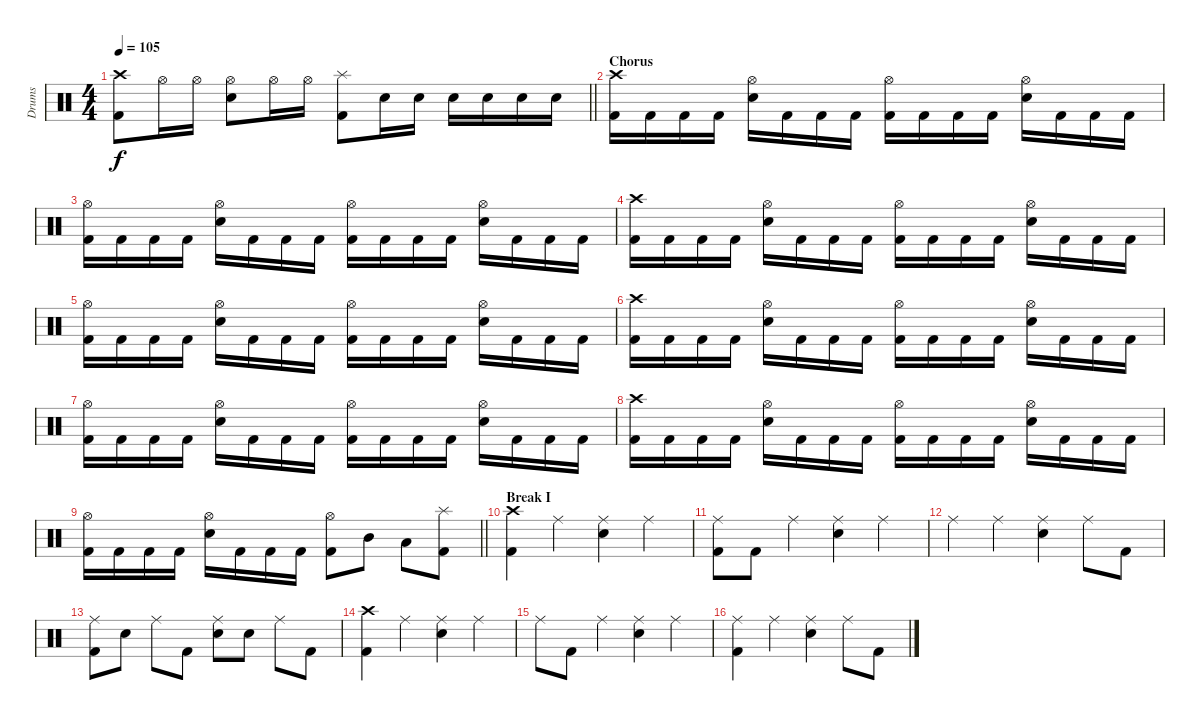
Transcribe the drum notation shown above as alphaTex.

\track ("Drums" "Drums") {instrument percussion}
\staff {score}
\articulation defaults
\ts (4 4)
\tempo 105
\clef neutral
\barLineRight lightlight
\ks c
("Crash high (hit)" "Kick (hit) 2").8{dy f} "Hi-Hat (open)".16 "Hi-Hat (open)".16 ("Hi-Hat (open)" "Electric Snare (hit)").8 "Hi-Hat (open)".16 "Hi-Hat (open)".16 ("Splash (hit)" "Kick (hit) 2").8 "Electric Snare (hit)".16 "Electric Snare (hit)".16 "Electric Snare (hit)".16 "Electric Snare (hit)".16 "Electric Snare (hit)".16 "Electric Snare (hit)".16 |
\section ("" "Chorus")
("Crash high (hit)" "Kick (hit) 2").16 "Kick (hit) 2".16 "Kick (hit) 2".16 "Kick (hit) 2".16 ("Hi-Hat (open)" "Electric Snare (hit)").16 "Kick (hit) 2".16 "Kick (hit) 2".16 "Kick (hit) 2".16 ("Hi-Hat (open)" "Kick (hit) 2").16 "Kick (hit) 2".16 "Kick (hit) 2".16 "Kick (hit) 2".16 ("Hi-Hat (open)" "Electric Snare (hit)").16 "Kick (hit) 2".16 "Kick (hit) 2".16 "Kick (hit) 2".16 |
("Hi-Hat (open)" "Kick (hit) 2").16 "Kick (hit) 2".16 "Kick (hit) 2".16 "Kick (hit) 2".16 ("Hi-Hat (open)" "Electric Snare (hit)").16 "Kick (hit) 2".16 "Kick (hit) 2".16 "Kick (hit) 2".16 ("Hi-Hat (open)" "Kick (hit) 2").16 "Kick (hit) 2".16 "Kick (hit) 2".16 "Kick (hit) 2".16 ("Hi-Hat (open)" "Electric Snare (hit)").16 "Kick (hit) 2".16 "Kick (hit) 2".16 "Kick (hit) 2".16 |
("Crash high (hit)" "Kick (hit) 2").16 "Kick (hit) 2".16 "Kick (hit) 2".16 "Kick (hit) 2".16 ("Hi-Hat (open)" "Electric Snare (hit)").16 "Kick (hit) 2".16 "Kick (hit) 2".16 "Kick (hit) 2".16 ("Hi-Hat (open)" "Kick (hit) 2").16 "Kick (hit) 2".16 "Kick (hit) 2".16 "Kick (hit) 2".16 ("Hi-Hat (open)" "Electric Snare (hit)").16 "Kick (hit) 2".16 "Kick (hit) 2".16 "Kick (hit) 2".16 |
("Hi-Hat (open)" "Kick (hit) 2").16 "Kick (hit) 2".16 "Kick (hit) 2".16 "Kick (hit) 2".16 ("Hi-Hat (open)" "Electric Snare (hit)").16 "Kick (hit) 2".16 "Kick (hit) 2".16 "Kick (hit) 2".16 ("Hi-Hat (open)" "Kick (hit) 2").16 "Kick (hit) 2".16 "Kick (hit) 2".16 "Kick (hit) 2".16 ("Hi-Hat (open)" "Electric Snare (hit)").16 "Kick (hit) 2".16 "Kick (hit) 2".16 "Kick (hit) 2".16 |
("Crash high (hit)" "Kick (hit) 2").16 "Kick (hit) 2".16 "Kick (hit) 2".16 "Kick (hit) 2".16 ("Hi-Hat (open)" "Electric Snare (hit)").16 "Kick (hit) 2".16 "Kick (hit) 2".16 "Kick (hit) 2".16 ("Hi-Hat (open)" "Kick (hit) 2").16 "Kick (hit) 2".16 "Kick (hit) 2".16 "Kick (hit) 2".16 ("Hi-Hat (open)" "Electric Snare (hit)").16 "Kick (hit) 2".16 "Kick (hit) 2".16 "Kick (hit) 2".16 |
("Hi-Hat (open)" "Kick (hit) 2").16 "Kick (hit) 2".16 "Kick (hit) 2".16 "Kick (hit) 2".16 ("Hi-Hat (open)" "Electric Snare (hit)").16 "Kick (hit) 2".16 "Kick (hit) 2".16 "Kick (hit) 2".16 ("Hi-Hat (open)" "Kick (hit) 2").16 "Kick (hit) 2".16 "Kick (hit) 2".16 "Kick (hit) 2".16 ("Hi-Hat (open)" "Electric Snare (hit)").16 "Kick (hit) 2".16 "Kick (hit) 2".16 "Kick (hit) 2".16 |
("Crash high (hit)" "Kick (hit) 2").16 "Kick (hit) 2".16 "Kick (hit) 2".16 "Kick (hit) 2".16 ("Hi-Hat (open)" "Electric Snare (hit)").16 "Kick (hit) 2".16 "Kick (hit) 2".16 "Kick (hit) 2".16 ("Hi-Hat (open)" "Kick (hit) 2").16 "Kick (hit) 2".16 "Kick (hit) 2".16 "Kick (hit) 2".16 ("Hi-Hat (open)" "Electric Snare (hit)").16 "Kick (hit) 2".16 "Kick (hit) 2".16 "Kick (hit) 2".16 |
\barLineRight lightlight
("Hi-Hat (open)" "Kick (hit) 2").16 "Kick (hit) 2".16 "Kick (hit) 2".16 "Kick (hit) 2".16 ("Hi-Hat (open)" "Electric Snare (hit)").16 "Kick (hit) 2".16 "Kick (hit) 2".16 "Kick (hit) 2".16 ("Hi-Hat (open)" "Kick (hit) 2").8 "Mid Tom (hit)".8 "Low Tom (hit)".8 ("Splash (hit)" "Kick (hit) 2").8 |
\section ("" "Break I")
("Crash high (hit)" "Kick (hit) 2").4 "Ride (middle)".4 ("Ride (middle)" "Electric Snare (hit)").4 "Ride (middle)".4 |
("Ride (middle)" "Kick (hit) 2").8 "Kick (hit) 2".8 "Ride (middle)".4 ("Ride (middle)" "Electric Snare (hit)").4 "Ride (middle)".4 |
"Ride (middle)".4 "Ride (middle)".4 ("Ride (middle)" "Electric Snare (hit)").4 "Ride (middle)".8 "Kick (hit) 2".8 |
("Ride (middle)" "Kick (hit) 2").8 "Electric Snare (hit)".8 "Ride (middle)".8 "Kick (hit) 2".8 ("Ride (middle)" "Electric Snare (hit)").8 "Electric Snare (hit)".8 "Ride (middle)".8 "Kick (hit) 2".8 |
("Crash high (hit)" "Kick (hit) 2").4 "Ride (middle)".4 ("Ride (middle)" "Electric Snare (hit)").4 "Ride (middle)".4 |
"Ride (middle)".8 "Kick (hit) 2".8 "Ride (middle)".4 ("Ride (middle)" "Electric Snare (hit)").4 "Ride (middle)".4 |
("Ride (middle)" "Kick (hit) 2").4 "Ride (middle)".4 ("Ride (middle)" "Electric Snare (hit)").4 "Ride (middle)".8 "Kick (hit) 2".8
